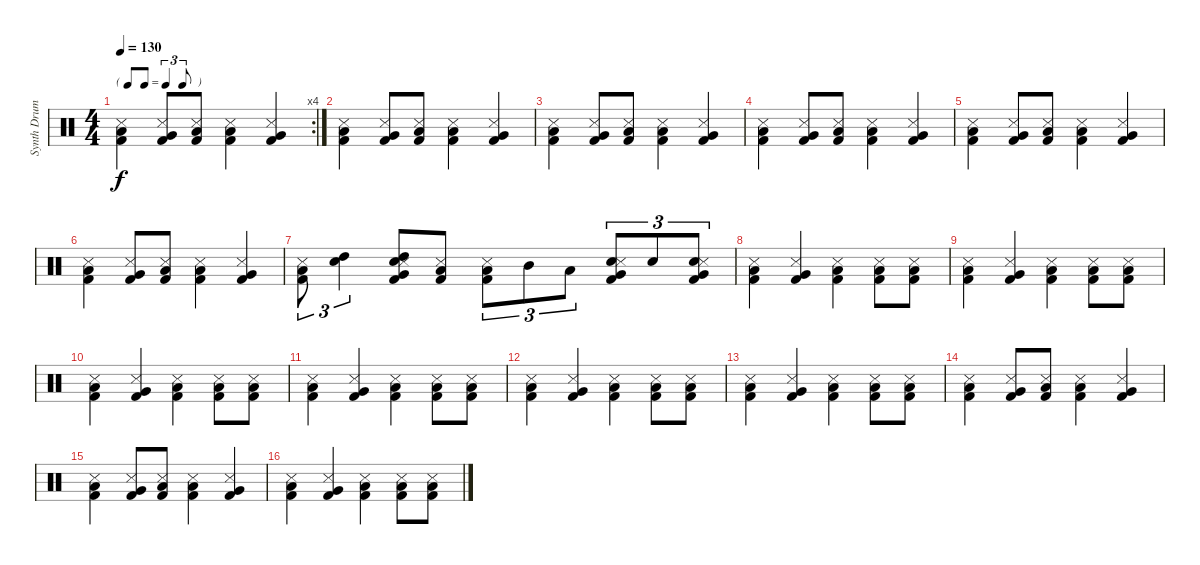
\track ("Synth Drums (Alan Wilder)" "Synth Drum") {instrument percussion}
\staff {score}
\articulation defaults
\rc 4
\ts (4 4)
\tf triplet8th
\tempo 130
\clef neutral
\ks c
("Low Floor Tom (hit)" "Kick (hit) 2" "Snare (side stick) 3").4{dy f} ("Very Low Tom (hit)" "Kick (hit) 2" "Snare (side stick) 3").8 ("Low Floor Tom (hit)" "Kick (hit) 2" "Snare (side stick) 3").8 ("Low Floor Tom (hit)" "Kick (hit) 2" "Snare (side stick) 3").4 ("Very Low Tom (hit)" "Kick (hit) 2" "Snare (side stick) 3").4 |
("Low Floor Tom (hit)" "Kick (hit) 2" "Snare (side stick) 3").4 ("Very Low Tom (hit)" "Kick (hit) 2" "Snare (side stick) 3").8 ("Low Floor Tom (hit)" "Kick (hit) 2" "Snare (side stick) 3").8 ("Low Floor Tom (hit)" "Kick (hit) 2" "Snare (side stick) 3").4 ("Very Low Tom (hit)" "Kick (hit) 2" "Snare (side stick) 3").4 |
("Low Floor Tom (hit)" "Kick (hit) 2" "Snare (side stick) 3").4 ("Very Low Tom (hit)" "Kick (hit) 2" "Snare (side stick) 3").8 ("Low Floor Tom (hit)" "Kick (hit) 2" "Snare (side stick) 3").8 ("Low Floor Tom (hit)" "Kick (hit) 2" "Snare (side stick) 3").4 ("Very Low Tom (hit)" "Kick (hit) 2" "Snare (side stick) 3").4 |
("Low Floor Tom (hit)" "Kick (hit) 2" "Snare (side stick) 3").4 ("Very Low Tom (hit)" "Kick (hit) 2" "Snare (side stick) 3").8 ("Low Floor Tom (hit)" "Kick (hit) 2" "Snare (side stick) 3").8 ("Low Floor Tom (hit)" "Kick (hit) 2" "Snare (side stick) 3").4 ("Very Low Tom (hit)" "Kick (hit) 2" "Snare (side stick) 3").4 |
("Low Floor Tom (hit)" "Kick (hit) 2" "Snare (side stick) 3").4 ("Very Low Tom (hit)" "Kick (hit) 2" "Snare (side stick) 3").8 ("Low Floor Tom (hit)" "Kick (hit) 2" "Snare (side stick) 3").8 ("Low Floor Tom (hit)" "Kick (hit) 2" "Snare (side stick) 3").4 ("Very Low Tom (hit)" "Kick (hit) 2" "Snare (side stick) 3").4 |
("Low Floor Tom (hit)" "Kick (hit) 2" "Snare (side stick) 3").4 ("Very Low Tom (hit)" "Kick (hit) 2" "Snare (side stick) 3").8 ("Low Floor Tom (hit)" "Kick (hit) 2" "Snare (side stick) 3").8 ("Low Floor Tom (hit)" "Kick (hit) 2" "Snare (side stick) 3").4 ("Very Low Tom (hit)" "Kick (hit) 2" "Snare (side stick) 3").4 |
("Low Floor Tom (hit)" "Kick (hit) 2" "Snare (side stick) 3").8{tu (3 2)} ("High Tom (hit)" "Electric Snare (hit)").4{tu (3 2)} ("High Tom (hit)" "Electric Snare (hit)" "Very Low Tom (hit)" "Kick (hit) 2" "Snare (side stick) 3").8 ("Low Floor Tom (hit)" "Kick (hit) 2" "Snare (side stick) 3").8 ("Low Floor Tom (hit)" "Kick (hit) 2" "Snare (side stick) 3").8{tu (3 2)} "Mid Tom (hit)".8{tu (3 2)} "Low Tom (hit)".8{tu (3 2)} ("Electric Snare (hit)" "Very Low Tom (hit)" "Kick (hit) 2" "Snare (side stick) 3").8{tu (3 2)} "Electric Snare (hit)".8{tu (3 2)} ("Electric Snare (hit)" "Very Low Tom (hit)" "Kick (hit) 2" "Snare (side stick) 3").8{tu (3 2)} |
("Low Floor Tom (hit)" "Kick (hit) 2" "Snare (side stick) 3").4 ("Very Low Tom (hit)" "Kick (hit) 2" "Snare (side stick) 3").4 ("Low Floor Tom (hit)" "Kick (hit) 2" "Snare (side stick) 3").4 ("Low Floor Tom (hit)" "Kick (hit) 2" "Snare (side stick) 3").8 ("Low Floor Tom (hit)" "Kick (hit) 2" "Snare (side stick) 3").8 |
("Low Floor Tom (hit)" "Kick (hit) 2" "Snare (side stick) 3").4 ("Very Low Tom (hit)" "Kick (hit) 2" "Snare (side stick) 3").4 ("Low Floor Tom (hit)" "Kick (hit) 2" "Snare (side stick) 3").4 ("Low Floor Tom (hit)" "Kick (hit) 2" "Snare (side stick) 3").8 ("Low Floor Tom (hit)" "Kick (hit) 2" "Snare (side stick) 3").8 |
("Low Floor Tom (hit)" "Kick (hit) 2" "Snare (side stick) 3").4 ("Very Low Tom (hit)" "Kick (hit) 2" "Snare (side stick) 3").4 ("Low Floor Tom (hit)" "Kick (hit) 2" "Snare (side stick) 3").4 ("Low Floor Tom (hit)" "Kick (hit) 2" "Snare (side stick) 3").8 ("Low Floor Tom (hit)" "Kick (hit) 2" "Snare (side stick) 3").8 |
("Low Floor Tom (hit)" "Kick (hit) 2" "Snare (side stick) 3").4 ("Very Low Tom (hit)" "Kick (hit) 2" "Snare (side stick) 3").4 ("Low Floor Tom (hit)" "Kick (hit) 2" "Snare (side stick) 3").4 ("Low Floor Tom (hit)" "Kick (hit) 2" "Snare (side stick) 3").8 ("Low Floor Tom (hit)" "Kick (hit) 2" "Snare (side stick) 3").8 |
("Low Floor Tom (hit)" "Kick (hit) 2" "Snare (side stick) 3").4 ("Very Low Tom (hit)" "Kick (hit) 2" "Snare (side stick) 3").4 ("Low Floor Tom (hit)" "Kick (hit) 2" "Snare (side stick) 3").4 ("Low Floor Tom (hit)" "Kick (hit) 2" "Snare (side stick) 3").8 ("Low Floor Tom (hit)" "Kick (hit) 2" "Snare (side stick) 3").8 |
("Low Floor Tom (hit)" "Kick (hit) 2" "Snare (side stick) 3").4 ("Very Low Tom (hit)" "Kick (hit) 2" "Snare (side stick) 3").4 ("Low Floor Tom (hit)" "Kick (hit) 2" "Snare (side stick) 3").4 ("Low Floor Tom (hit)" "Kick (hit) 2" "Snare (side stick) 3").8 ("Low Floor Tom (hit)" "Kick (hit) 2" "Snare (side stick) 3").8 |
("Low Floor Tom (hit)" "Kick (hit) 2" "Snare (side stick) 3").4 ("Very Low Tom (hit)" "Kick (hit) 2" "Snare (side stick) 3").8 ("Low Floor Tom (hit)" "Kick (hit) 2" "Snare (side stick) 3").8 ("Low Floor Tom (hit)" "Kick (hit) 2" "Snare (side stick) 3").4 ("Very Low Tom (hit)" "Kick (hit) 2" "Snare (side stick) 3").4 |
("Low Floor Tom (hit)" "Kick (hit) 2" "Snare (side stick) 3").4 ("Very Low Tom (hit)" "Kick (hit) 2" "Snare (side stick) 3").8 ("Low Floor Tom (hit)" "Kick (hit) 2" "Snare (side stick) 3").8 ("Low Floor Tom (hit)" "Kick (hit) 2" "Snare (side stick) 3").4 ("Very Low Tom (hit)" "Kick (hit) 2" "Snare (side stick) 3").4 |
("Low Floor Tom (hit)" "Kick (hit) 2" "Snare (side stick) 3").4 ("Very Low Tom (hit)" "Kick (hit) 2" "Snare (side stick) 3").4 ("Low Floor Tom (hit)" "Kick (hit) 2" "Snare (side stick) 3").4 ("Low Floor Tom (hit)" "Kick (hit) 2" "Snare (side stick) 3").8 ("Low Floor Tom (hit)" "Kick (hit) 2" "Snare (side stick) 3").8
